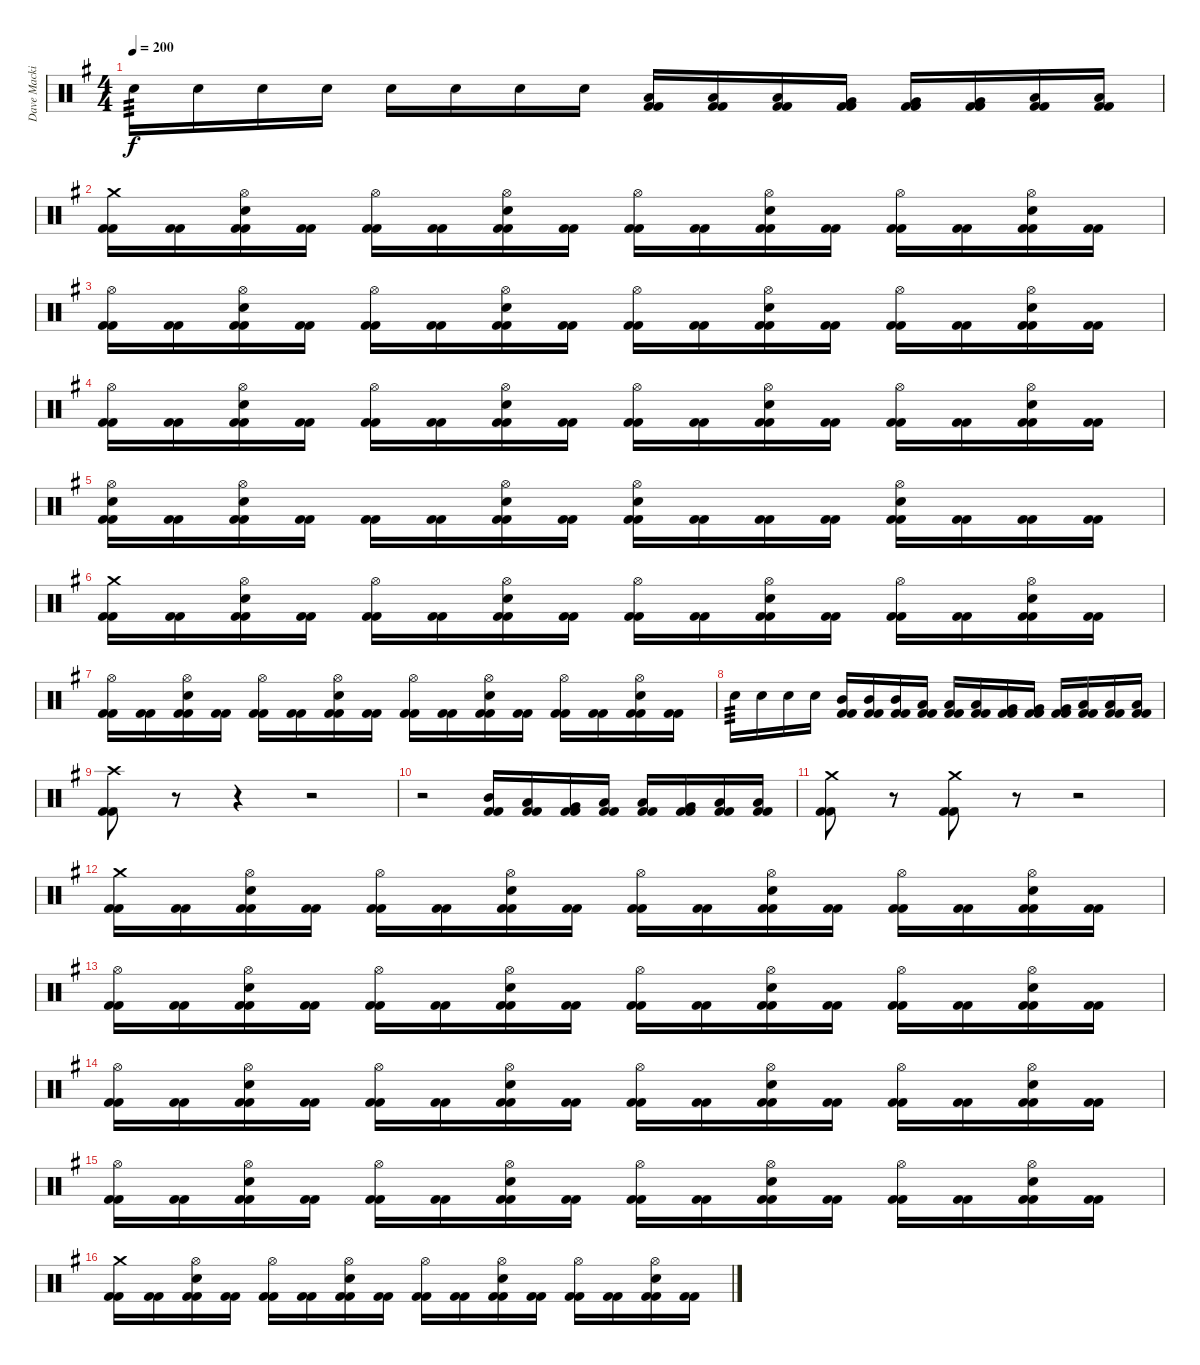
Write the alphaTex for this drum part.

\track ("Dave Mackintosh" "Dave Macki") {instrument percussion}
\staff {score}
\articulation defaults
\ts (4 4)
\tempo 200
\clef neutral
\ks g "Electric Snare (hit)".16{tp 3 dy f} "Electric Snare (hit)".16 "Electric Snare (hit)".16 "Electric Snare (hit)".16 "Electric Snare (hit)".16 "Electric Snare (hit)".16 "Electric Snare (hit)".16 "Electric Snare (hit)".16
("Low Tom (hit)" "Kick (hit) 2" "Kick (hit) 2").16 ("Low Tom (hit)" "Kick (hit) 2" "Kick (hit) 2").16 ("Low Tom (hit)" "Kick (hit) 2" "Kick (hit) 2").16 ("Very Low Tom (hit)" "Kick (hit) 2" "Kick (hit) 2").16 ("Very Low Tom (hit)" "Kick (hit) 2" "Kick (hit) 2").16 ("Very Low Tom (hit)" "Kick (hit) 2" "Kick (hit) 2").16 ("Low Floor Tom (hit)" "Kick (hit) 2" "Kick (hit) 2").16 ("Low Floor Tom (hit)" "Kick (hit) 2" "Kick (hit) 2").16 |
("Crash medium (hit)" "Kick (hit) 2" "Kick (hit) 2").16 ("Kick (hit) 2" "Kick (hit) 2").16 ("Hi-Hat (open)" "Electric Snare (hit)" "Kick (hit) 2" "Kick (hit) 2").16 ("Kick (hit) 2" "Kick (hit) 2").16 ("Hi-Hat (open)" "Kick (hit) 2" "Kick (hit) 2").16 ("Kick (hit) 2" "Kick (hit) 2").16 ("Hi-Hat (open)" "Electric Snare (hit)" "Kick (hit) 2" "Kick (hit) 2").16 ("Kick (hit) 2" "Kick (hit) 2").16 ("Hi-Hat (open)" "Kick (hit) 2" "Kick (hit) 2").16 ("Kick (hit) 2" "Kick (hit) 2").16 ("Hi-Hat (open)" "Electric Snare (hit)" "Kick (hit) 2" "Kick (hit) 2").16 ("Kick (hit) 2" "Kick (hit) 2").16 ("Hi-Hat (open)" "Kick (hit) 2" "Kick (hit) 2").16 ("Kick (hit) 2" "Kick (hit) 2").16 ("Hi-Hat (open)" "Electric Snare (hit)" "Kick (hit) 2" "Kick (hit) 2").16 ("Kick (hit) 2" "Kick (hit) 2").16 |
("Hi-Hat (open)" "Kick (hit) 2" "Kick (hit) 2").16 ("Kick (hit) 2" "Kick (hit) 2").16 ("Hi-Hat (open)" "Electric Snare (hit)" "Kick (hit) 2" "Kick (hit) 2").16 ("Kick (hit) 2" "Kick (hit) 2").16 ("Hi-Hat (open)" "Kick (hit) 2" "Kick (hit) 2").16 ("Kick (hit) 2" "Kick (hit) 2").16 ("Hi-Hat (open)" "Electric Snare (hit)" "Kick (hit) 2" "Kick (hit) 2").16 ("Kick (hit) 2" "Kick (hit) 2").16 ("Hi-Hat (open)" "Kick (hit) 2" "Kick (hit) 2").16 ("Kick (hit) 2" "Kick (hit) 2").16 ("Hi-Hat (open)" "Electric Snare (hit)" "Kick (hit) 2" "Kick (hit) 2").16 ("Kick (hit) 2" "Kick (hit) 2").16 ("Hi-Hat (open)" "Kick (hit) 2" "Kick (hit) 2").16 ("Kick (hit) 2" "Kick (hit) 2").16 ("Hi-Hat (open)" "Electric Snare (hit)" "Kick (hit) 2" "Kick (hit) 2").16 ("Kick (hit) 2" "Kick (hit) 2").16 |
("Hi-Hat (open)" "Kick (hit) 2" "Kick (hit) 2").16 ("Kick (hit) 2" "Kick (hit) 2").16 ("Hi-Hat (open)" "Electric Snare (hit)" "Kick (hit) 2" "Kick (hit) 2").16 ("Kick (hit) 2" "Kick (hit) 2").16 ("Hi-Hat (open)" "Kick (hit) 2" "Kick (hit) 2").16 ("Kick (hit) 2" "Kick (hit) 2").16 ("Hi-Hat (open)" "Electric Snare (hit)" "Kick (hit) 2" "Kick (hit) 2").16 ("Kick (hit) 2" "Kick (hit) 2").16 ("Hi-Hat (open)" "Kick (hit) 2" "Kick (hit) 2").16 ("Kick (hit) 2" "Kick (hit) 2").16 ("Hi-Hat (open)" "Electric Snare (hit)" "Kick (hit) 2" "Kick (hit) 2").16 ("Kick (hit) 2" "Kick (hit) 2").16 ("Hi-Hat (open)" "Kick (hit) 2" "Kick (hit) 2").16 ("Kick (hit) 2" "Kick (hit) 2").16 ("Hi-Hat (open)" "Electric Snare (hit)" "Kick (hit) 2" "Kick (hit) 2").16 ("Kick (hit) 2" "Kick (hit) 2").16 |
("Hi-Hat (open)" "Electric Snare (hit)" "Kick (hit) 2" "Kick (hit) 2").16 ("Kick (hit) 2" "Kick (hit) 2").16 ("Hi-Hat (open)" "Electric Snare (hit)" "Kick (hit) 2" "Kick (hit) 2").16 ("Kick (hit) 2" "Kick (hit) 2").16 ("Kick (hit) 2" "Kick (hit) 2").16 ("Kick (hit) 2" "Kick (hit) 2").16 ("Hi-Hat (open)" "Electric Snare (hit)" "Kick (hit) 2" "Kick (hit) 2").16 ("Kick (hit) 2" "Kick (hit) 2").16 ("Hi-Hat (open)" "Electric Snare (hit)" "Kick (hit) 2" "Kick (hit) 2").16 ("Kick (hit) 2" "Kick (hit) 2").16 ("Kick (hit) 2" "Kick (hit) 2").16 ("Kick (hit) 2" "Kick (hit) 2").16 ("Hi-Hat (open)" "Electric Snare (hit)" "Kick (hit) 2" "Kick (hit) 2").16 ("Kick (hit) 2" "Kick (hit) 2").16 ("Kick (hit) 2" "Kick (hit) 2").16 ("Kick (hit) 2" "Kick (hit) 2").16 |
("Crash medium (hit)" "Kick (hit) 2" "Kick (hit) 2").16 ("Kick (hit) 2" "Kick (hit) 2").16 ("Hi-Hat (open)" "Electric Snare (hit)" "Kick (hit) 2" "Kick (hit) 2").16 ("Kick (hit) 2" "Kick (hit) 2").16 ("Hi-Hat (open)" "Kick (hit) 2" "Kick (hit) 2").16 ("Kick (hit) 2" "Kick (hit) 2").16 ("Hi-Hat (open)" "Electric Snare (hit)" "Kick (hit) 2" "Kick (hit) 2").16 ("Kick (hit) 2" "Kick (hit) 2").16 ("Hi-Hat (open)" "Kick (hit) 2" "Kick (hit) 2").16 ("Kick (hit) 2" "Kick (hit) 2").16 ("Hi-Hat (open)" "Electric Snare (hit)" "Kick (hit) 2" "Kick (hit) 2").16 ("Kick (hit) 2" "Kick (hit) 2").16 ("Hi-Hat (open)" "Kick (hit) 2" "Kick (hit) 2").16 ("Kick (hit) 2" "Kick (hit) 2").16 ("Hi-Hat (open)" "Electric Snare (hit)" "Kick (hit) 2" "Kick (hit) 2").16 ("Kick (hit) 2" "Kick (hit) 2").16 |
("Hi-Hat (open)" "Kick (hit) 2" "Kick (hit) 2").16 ("Kick (hit) 2" "Kick (hit) 2").16 ("Hi-Hat (open)" "Electric Snare (hit)" "Kick (hit) 2" "Kick (hit) 2").16 ("Kick (hit) 2" "Kick (hit) 2").16 ("Hi-Hat (open)" "Kick (hit) 2" "Kick (hit) 2").16 ("Kick (hit) 2" "Kick (hit) 2").16 ("Hi-Hat (open)" "Electric Snare (hit)" "Kick (hit) 2" "Kick (hit) 2").16 ("Kick (hit) 2" "Kick (hit) 2").16 ("Hi-Hat (open)" "Kick (hit) 2" "Kick (hit) 2").16 ("Kick (hit) 2" "Kick (hit) 2").16 ("Hi-Hat (open)" "Electric Snare (hit)" "Kick (hit) 2" "Kick (hit) 2").16 ("Kick (hit) 2" "Kick (hit) 2").16 ("Hi-Hat (open)" "Kick (hit) 2" "Kick (hit) 2").16 ("Kick (hit) 2" "Kick (hit) 2").16 ("Hi-Hat (open)" "Electric Snare (hit)" "Kick (hit) 2" "Kick (hit) 2").16 ("Kick (hit) 2" "Kick (hit) 2").16 |
"Electric Snare (hit)".16{tp 3} "Electric Snare (hit)".16 "Electric Snare (hit)".16 "Electric Snare (hit)".16 ("Mid Tom (hit)" "Kick (hit) 2" "Kick (hit) 2").16 ("Mid Tom (hit)" "Kick (hit) 2" "Kick (hit) 2").16 ("Mid Tom (hit)" "Kick (hit) 2" "Kick (hit) 2").16 ("Low Tom (hit)" "Kick (hit) 2" "Kick (hit) 2").16 ("Low Tom (hit)" "Kick (hit) 2" "Kick (hit) 2").16 ("Low Tom (hit)" "Kick (hit) 2" "Kick (hit) 2").16 ("Very Low Tom (hit)" "Kick (hit) 2" "Kick (hit) 2").16 ("Very Low Tom (hit)" "Kick (hit) 2" "Kick (hit) 2").16 ("Very Low Tom (hit)" "Kick (hit) 2" "Kick (hit) 2").16 ("Low Floor Tom (hit)" "Kick (hit) 2" "Kick (hit) 2").16 ("Low Floor Tom (hit)" "Kick (hit) 2" "Kick (hit) 2").16 ("Low Floor Tom (hit)" "Kick (hit) 2" "Kick (hit) 2").16 |
("Crash high (hit)" "Kick (hit) 2" "Kick (hit) 2").8 r.8{volume 0} r.4 r.2 |
r.2 ("Mid Tom (hit)" "Kick (hit) 2" "Kick (hit) 2").16{volume 16} ("Low Tom (hit)" "Kick (hit) 2" "Kick (hit) 2").16 ("Very Low Tom (hit)" "Kick (hit) 2" "Kick (hit) 2").16 ("Low Floor Tom (hit)" "Kick (hit) 2" "Kick (hit) 2").16 ("Low Tom (hit)" "Kick (hit) 2" "Kick (hit) 2").16 ("Very Low Tom (hit)" "Kick (hit) 2" "Kick (hit) 2").16 ("Low Floor Tom (hit)" "Kick (hit) 2" "Kick (hit) 2").16 ("Low Floor Tom (hit)" "Kick (hit) 2" "Kick (hit) 2").16 |
("Crash medium (hit)" "Kick (hit) 2" "Kick (hit) 2").8 r.8 ("Crash medium (hit)" "Kick (hit) 2" "Kick (hit) 2").8 r.8 r.2 |
("Crash medium (hit)" "Kick (hit) 2" "Kick (hit) 2").16 ("Kick (hit) 2" "Kick (hit) 2").16 ("Hi-Hat (open)" "Electric Snare (hit)" "Kick (hit) 2" "Kick (hit) 2").16 ("Kick (hit) 2" "Kick (hit) 2").16 ("Hi-Hat (open)" "Kick (hit) 2" "Kick (hit) 2").16 ("Kick (hit) 2" "Kick (hit) 2").16 ("Hi-Hat (open)" "Electric Snare (hit)" "Kick (hit) 2" "Kick (hit) 2").16 ("Kick (hit) 2" "Kick (hit) 2").16 ("Hi-Hat (open)" "Kick (hit) 2" "Kick (hit) 2").16 ("Kick (hit) 2" "Kick (hit) 2").16 ("Hi-Hat (open)" "Electric Snare (hit)" "Kick (hit) 2" "Kick (hit) 2").16 ("Kick (hit) 2" "Kick (hit) 2").16 ("Hi-Hat (open)" "Kick (hit) 2" "Kick (hit) 2").16 ("Kick (hit) 2" "Kick (hit) 2").16 ("Hi-Hat (open)" "Electric Snare (hit)" "Kick (hit) 2" "Kick (hit) 2").16 ("Kick (hit) 2" "Kick (hit) 2").16 |
("Hi-Hat (open)" "Kick (hit) 2" "Kick (hit) 2").16 ("Kick (hit) 2" "Kick (hit) 2").16 ("Hi-Hat (open)" "Electric Snare (hit)" "Kick (hit) 2" "Kick (hit) 2").16 ("Kick (hit) 2" "Kick (hit) 2").16 ("Hi-Hat (open)" "Kick (hit) 2" "Kick (hit) 2").16 ("Kick (hit) 2" "Kick (hit) 2").16 ("Hi-Hat (open)" "Electric Snare (hit)" "Kick (hit) 2" "Kick (hit) 2").16 ("Kick (hit) 2" "Kick (hit) 2").16 ("Hi-Hat (open)" "Kick (hit) 2" "Kick (hit) 2").16 ("Kick (hit) 2" "Kick (hit) 2").16 ("Hi-Hat (open)" "Electric Snare (hit)" "Kick (hit) 2" "Kick (hit) 2").16 ("Kick (hit) 2" "Kick (hit) 2").16 ("Hi-Hat (open)" "Kick (hit) 2" "Kick (hit) 2").16 ("Kick (hit) 2" "Kick (hit) 2").16 ("Hi-Hat (open)" "Electric Snare (hit)" "Kick (hit) 2" "Kick (hit) 2").16 ("Kick (hit) 2" "Kick (hit) 2").16 |
("Hi-Hat (open)" "Kick (hit) 2" "Kick (hit) 2").16 ("Kick (hit) 2" "Kick (hit) 2").16 ("Hi-Hat (open)" "Electric Snare (hit)" "Kick (hit) 2" "Kick (hit) 2").16 ("Kick (hit) 2" "Kick (hit) 2").16 ("Hi-Hat (open)" "Kick (hit) 2" "Kick (hit) 2").16 ("Kick (hit) 2" "Kick (hit) 2").16 ("Hi-Hat (open)" "Electric Snare (hit)" "Kick (hit) 2" "Kick (hit) 2").16 ("Kick (hit) 2" "Kick (hit) 2").16 ("Hi-Hat (open)" "Kick (hit) 2" "Kick (hit) 2").16 ("Kick (hit) 2" "Kick (hit) 2").16 ("Hi-Hat (open)" "Electric Snare (hit)" "Kick (hit) 2" "Kick (hit) 2").16 ("Kick (hit) 2" "Kick (hit) 2").16 ("Hi-Hat (open)" "Kick (hit) 2" "Kick (hit) 2").16 ("Kick (hit) 2" "Kick (hit) 2").16 ("Hi-Hat (open)" "Electric Snare (hit)" "Kick (hit) 2" "Kick (hit) 2").16 ("Kick (hit) 2" "Kick (hit) 2").16 |
("Hi-Hat (open)" "Kick (hit) 2" "Kick (hit) 2").16 ("Kick (hit) 2" "Kick (hit) 2").16 ("Hi-Hat (open)" "Electric Snare (hit)" "Kick (hit) 2" "Kick (hit) 2").16 ("Kick (hit) 2" "Kick (hit) 2").16 ("Hi-Hat (open)" "Kick (hit) 2" "Kick (hit) 2").16 ("Kick (hit) 2" "Kick (hit) 2").16 ("Hi-Hat (open)" "Electric Snare (hit)" "Kick (hit) 2" "Kick (hit) 2").16 ("Kick (hit) 2" "Kick (hit) 2").16 ("Hi-Hat (open)" "Kick (hit) 2" "Kick (hit) 2").16 ("Kick (hit) 2" "Kick (hit) 2").16 ("Hi-Hat (open)" "Electric Snare (hit)" "Kick (hit) 2" "Kick (hit) 2").16 ("Kick (hit) 2" "Kick (hit) 2").16 ("Hi-Hat (open)" "Kick (hit) 2" "Kick (hit) 2").16 ("Kick (hit) 2" "Kick (hit) 2").16 ("Hi-Hat (open)" "Electric Snare (hit)" "Kick (hit) 2" "Kick (hit) 2").16 ("Kick (hit) 2" "Kick (hit) 2").16 |
("Crash medium (hit)" "Kick (hit) 2" "Kick (hit) 2").16 ("Kick (hit) 2" "Kick (hit) 2").16 ("Hi-Hat (open)" "Electric Snare (hit)" "Kick (hit) 2" "Kick (hit) 2").16 ("Kick (hit) 2" "Kick (hit) 2").16 ("Hi-Hat (open)" "Kick (hit) 2" "Kick (hit) 2").16 ("Kick (hit) 2" "Kick (hit) 2").16 ("Hi-Hat (open)" "Electric Snare (hit)" "Kick (hit) 2" "Kick (hit) 2").16 ("Kick (hit) 2" "Kick (hit) 2").16 ("Hi-Hat (open)" "Kick (hit) 2" "Kick (hit) 2").16 ("Kick (hit) 2" "Kick (hit) 2").16 ("Hi-Hat (open)" "Electric Snare (hit)" "Kick (hit) 2" "Kick (hit) 2").16 ("Kick (hit) 2" "Kick (hit) 2").16 ("Hi-Hat (open)" "Kick (hit) 2" "Kick (hit) 2").16 ("Kick (hit) 2" "Kick (hit) 2").16 ("Hi-Hat (open)" "Electric Snare (hit)" "Kick (hit) 2" "Kick (hit) 2").16 ("Kick (hit) 2" "Kick (hit) 2").16
